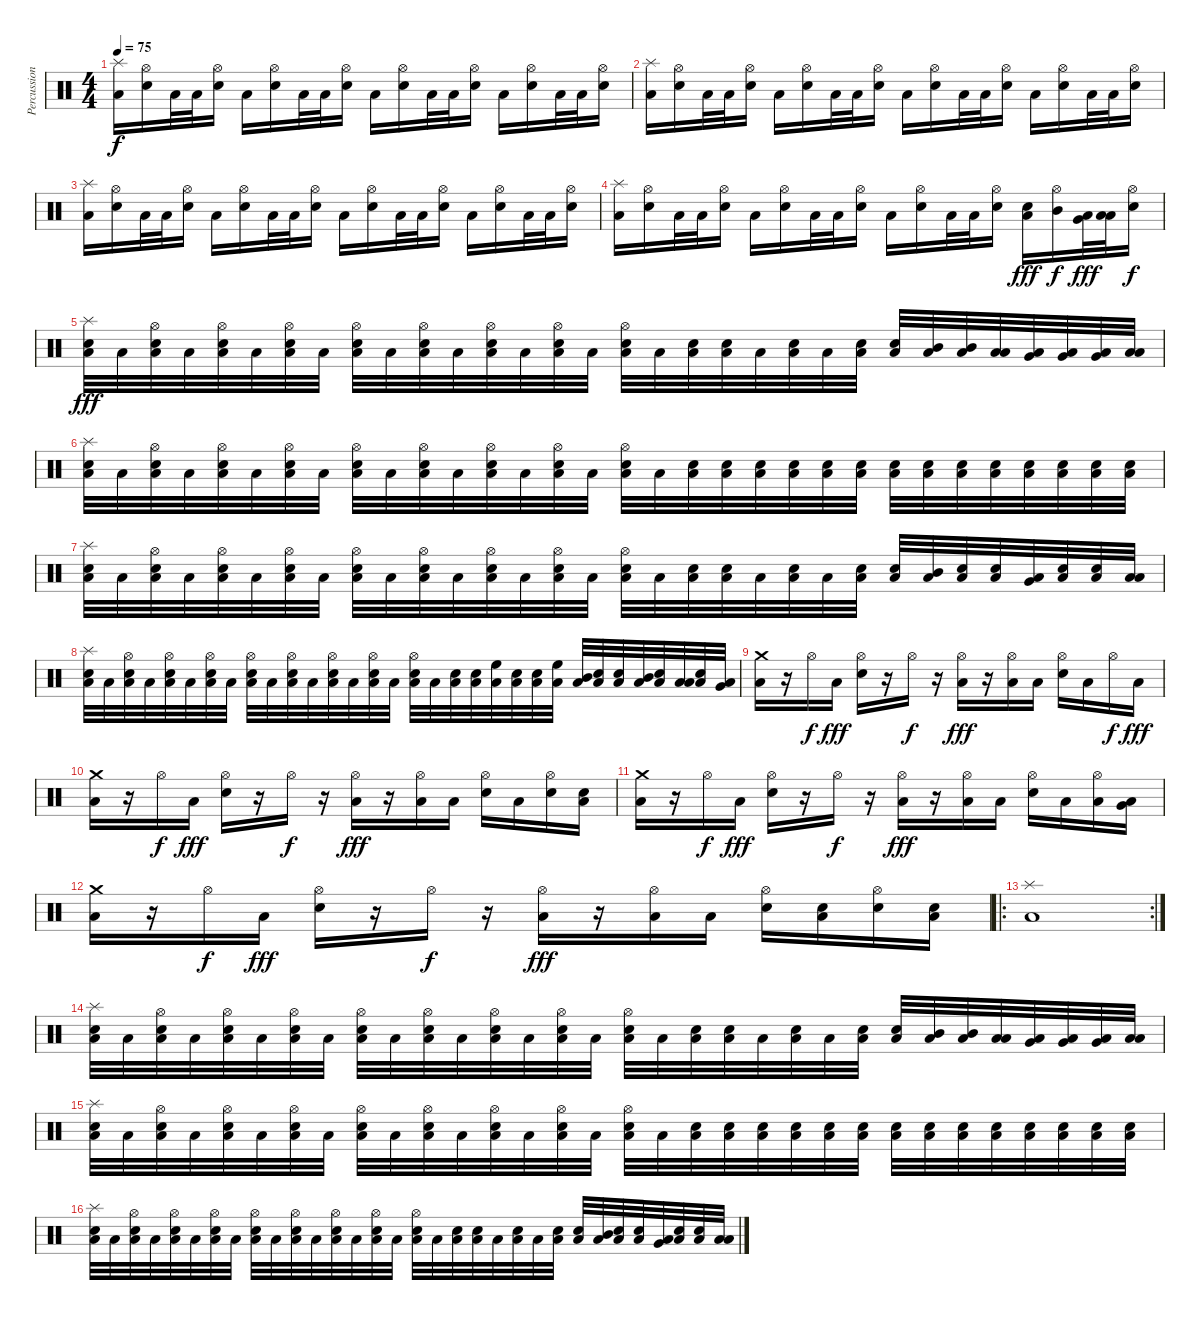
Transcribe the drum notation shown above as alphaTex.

\track ("Percussion" "Percussion") {instrument percussion}
\staff {score}
\articulation defaults
\ts (4 4)
\tempo 75
\clef neutral
\ks c
("Splash (hit)" "Low Floor Tom (hit)").16{dy f} ("Hi-Hat (open)" "Snare (hit) 2").16 "Low Floor Tom (hit)".32 "Low Floor Tom (hit)".32 ("Hi-Hat (open)" "Snare (hit) 2").16 "Low Floor Tom (hit)".16 ("Hi-Hat (open)" "Snare (hit) 2").16 "Low Floor Tom (hit)".32 "Low Floor Tom (hit)".32 ("Hi-Hat (open)" "Snare (hit) 2").16 "Low Floor Tom (hit)".16 ("Hi-Hat (open)" "Snare (hit) 2").16 "Low Floor Tom (hit)".32 "Low Floor Tom (hit)".32 ("Hi-Hat (open)" "Snare (hit) 2").16 "Low Floor Tom (hit)".16 ("Hi-Hat (open)" "Snare (hit) 2").16 "Low Floor Tom (hit)".32 "Low Floor Tom (hit)".32 ("Hi-Hat (open)" "Snare (hit) 2").16 |
("Splash (hit)" "Low Floor Tom (hit)").16 ("Hi-Hat (open)" "Snare (hit) 2").16 "Low Floor Tom (hit)".32 "Low Floor Tom (hit)".32 ("Hi-Hat (open)" "Snare (hit) 2").16 "Low Floor Tom (hit)".16 ("Hi-Hat (open)" "Snare (hit) 2").16 "Low Floor Tom (hit)".32 "Low Floor Tom (hit)".32 ("Hi-Hat (open)" "Snare (hit) 2").16 "Low Floor Tom (hit)".16 ("Hi-Hat (open)" "Snare (hit) 2").16 "Low Floor Tom (hit)".32 "Low Floor Tom (hit)".32 ("Hi-Hat (open)" "Snare (hit) 2").16 "Low Floor Tom (hit)".16 ("Hi-Hat (open)" "Snare (hit) 2").16 "Low Floor Tom (hit)".32 "Low Floor Tom (hit)".32 ("Hi-Hat (open)" "Snare (hit) 2").16 |
("Splash (hit)" "Low Floor Tom (hit)").16 ("Hi-Hat (open)" "Snare (hit) 2").16 "Low Floor Tom (hit)".32 "Low Floor Tom (hit)".32 ("Hi-Hat (open)" "Snare (hit) 2").16 "Low Floor Tom (hit)".16 ("Hi-Hat (open)" "Snare (hit) 2").16 "Low Floor Tom (hit)".32 "Low Floor Tom (hit)".32 ("Hi-Hat (open)" "Snare (hit) 2").16 "Low Floor Tom (hit)".16 ("Hi-Hat (open)" "Snare (hit) 2").16 "Low Floor Tom (hit)".32 "Low Floor Tom (hit)".32 ("Hi-Hat (open)" "Snare (hit) 2").16 "Low Floor Tom (hit)".16 ("Hi-Hat (open)" "Snare (hit) 2").16 "Low Floor Tom (hit)".32 "Low Floor Tom (hit)".32 ("Hi-Hat (open)" "Snare (hit) 2").16 |
("Splash (hit)" "Low Floor Tom (hit)").16 ("Hi-Hat (open)" "Snare (hit) 2").16 "Low Floor Tom (hit)".32 "Low Floor Tom (hit)".32 ("Hi-Hat (open)" "Snare (hit) 2").16 "Low Floor Tom (hit)".16 ("Hi-Hat (open)" "Snare (hit) 2").16 "Low Floor Tom (hit)".32 "Low Floor Tom (hit)".32 ("Hi-Hat (open)" "Snare (hit) 2").16 "Low Floor Tom (hit)".16 ("Hi-Hat (open)" "Snare (hit) 2").16 "Low Floor Tom (hit)".32 "Low Floor Tom (hit)".32 ("Hi-Hat (open)" "Snare (hit) 2").16 ("Snare (hit) 2" "Low Floor Tom (hit)").16{dy fff} ("Hi-Hat (open)" "Mid Tom (hit)").16{dy f} ("Very Low Tom (hit)" "Low Floor Tom (hit)").32{dy fff} ("Low Floor Tom (hit)" "Low Floor Tom (hit)").32 ("Hi-Hat (open)" "Snare (hit) 2").16{dy f} |
("Splash (hit)" "Snare (hit) 2" "Low Floor Tom (hit)").32{dy fff} "Low Floor Tom (hit)".32 ("Hi-Hat (open)" "Snare (hit) 2" "Low Floor Tom (hit)").32 "Low Floor Tom (hit)".32 ("Hi-Hat (open)" "Snare (hit) 2" "Low Floor Tom (hit)").32 "Low Floor Tom (hit)".32 ("Hi-Hat (open)" "Snare (hit) 2" "Low Floor Tom (hit)").32 "Low Floor Tom (hit)".32 ("Hi-Hat (open)" "Snare (hit) 2" "Low Floor Tom (hit)").32 "Low Floor Tom (hit)".32 ("Hi-Hat (open)" "Snare (hit) 2" "Low Floor Tom (hit)").32 "Low Floor Tom (hit)".32 ("Hi-Hat (open)" "Snare (hit) 2" "Low Floor Tom (hit)").32 "Low Floor Tom (hit)".32 ("Hi-Hat (open)" "Snare (hit) 2" "Low Floor Tom (hit)").32 "Low Floor Tom (hit)".32 ("Hi-Hat (open)" "Snare (hit) 2" "Low Floor Tom (hit)").32 "Low Floor Tom (hit)".32 ("Snare (hit) 2" "Low Floor Tom (hit)").32 ("Snare (hit) 2" "Low Floor Tom (hit)").32 "Low Floor Tom (hit)".32 ("Snare (hit) 2" "Low Floor Tom (hit)").32 "Low Floor Tom (hit)".32 ("Snare (hit) 2" "Low Floor Tom (hit)").32 ("Snare (hit) 2" "Low Floor Tom (hit)").32 ("Mid Tom (hit)" "Low Floor Tom (hit)").32 ("Mid Tom (hit)" "Low Floor Tom (hit)").32 ("Low Tom (hit)" "Low Floor Tom (hit)").32 ("Very Low Tom (hit)" "Low Floor Tom (hit)").32 ("Very Low Tom (hit)" "Low Floor Tom (hit)").32 ("Very Low Tom (hit)" "Low Floor Tom (hit)").32 ("Low Floor Tom (hit)" "Low Floor Tom (hit)").32 |
("Splash (hit)" "Snare (hit) 2" "Low Floor Tom (hit)").32 "Low Floor Tom (hit)".32 ("Hi-Hat (open)" "Snare (hit) 2" "Low Floor Tom (hit)").32 "Low Floor Tom (hit)".32 ("Hi-Hat (open)" "Snare (hit) 2" "Low Floor Tom (hit)").32 "Low Floor Tom (hit)".32 ("Hi-Hat (open)" "Snare (hit) 2" "Low Floor Tom (hit)").32 "Low Floor Tom (hit)".32 ("Hi-Hat (open)" "Snare (hit) 2" "Low Floor Tom (hit)").32 "Low Floor Tom (hit)".32 ("Hi-Hat (open)" "Snare (hit) 2" "Low Floor Tom (hit)").32 "Low Floor Tom (hit)".32 ("Hi-Hat (open)" "Snare (hit) 2" "Low Floor Tom (hit)").32 "Low Floor Tom (hit)".32 ("Hi-Hat (open)" "Snare (hit) 2" "Low Floor Tom (hit)").32 "Low Floor Tom (hit)".32 ("Hi-Hat (open)" "Snare (hit) 2" "Low Floor Tom (hit)").32 "Low Floor Tom (hit)".32 ("Snare (hit) 2" "Low Floor Tom (hit)").32 ("Snare (hit) 2" "Low Floor Tom (hit)").32 ("Snare (hit) 2" "Low Floor Tom (hit)").32 ("Snare (hit) 2" "Low Floor Tom (hit)").32 ("Snare (hit) 2" "Low Floor Tom (hit)").32 ("Snare (hit) 2" "Low Floor Tom (hit)").32 ("Snare (hit) 2" "Low Floor Tom (hit)").32 ("Snare (hit) 2" "Low Floor Tom (hit)").32 ("Snare (hit) 2" "Low Floor Tom (hit)").32 ("Snare (hit) 2" "Low Floor Tom (hit)").32 ("Snare (hit) 2" "Low Floor Tom (hit)").32 ("Snare (hit) 2" "Low Floor Tom (hit)").32 ("Snare (hit) 2" "Low Floor Tom (hit)").32 ("Snare (hit) 2" "Low Floor Tom (hit)").32 |
("Splash (hit)" "Snare (hit) 2" "Low Floor Tom (hit)").32 "Low Floor Tom (hit)".32 ("Hi-Hat (open)" "Snare (hit) 2" "Low Floor Tom (hit)").32 "Low Floor Tom (hit)".32 ("Hi-Hat (open)" "Snare (hit) 2" "Low Floor Tom (hit)").32 "Low Floor Tom (hit)".32 ("Hi-Hat (open)" "Snare (hit) 2" "Low Floor Tom (hit)").32 "Low Floor Tom (hit)".32 ("Hi-Hat (open)" "Snare (hit) 2" "Low Floor Tom (hit)").32 "Low Floor Tom (hit)".32 ("Hi-Hat (open)" "Snare (hit) 2" "Low Floor Tom (hit)").32 "Low Floor Tom (hit)".32 ("Hi-Hat (open)" "Snare (hit) 2" "Low Floor Tom (hit)").32 "Low Floor Tom (hit)".32 ("Hi-Hat (open)" "Snare (hit) 2" "Low Floor Tom (hit)").32 "Low Floor Tom (hit)".32 ("Hi-Hat (open)" "Snare (hit) 2" "Low Floor Tom (hit)").32 "Low Floor Tom (hit)".32 ("Snare (hit) 2" "Low Floor Tom (hit)").32 ("Snare (hit) 2" "Low Floor Tom (hit)").32 "Low Floor Tom (hit)".32 ("Snare (hit) 2" "Low Floor Tom (hit)").32 "Low Floor Tom (hit)".32 ("Snare (hit) 2" "Low Floor Tom (hit)").32 ("Snare (hit) 2" "Low Floor Tom (hit)").32 ("Mid Tom (hit)" "Low Floor Tom (hit)").32 ("Snare (hit) 2" "Low Floor Tom (hit)").32 ("Snare (hit) 2" "Low Floor Tom (hit)").32 ("Very Low Tom (hit)" "Low Floor Tom (hit)").32 ("Snare (hit) 2" "Low Floor Tom (hit)").32 ("Snare (hit) 2" "Low Floor Tom (hit)").32 ("Low Floor Tom (hit)" "Low Floor Tom (hit)").32 |
("Splash (hit)" "Snare (hit) 2" "Low Floor Tom (hit)").32 "Low Floor Tom (hit)".32 ("Hi-Hat (open)" "Snare (hit) 2" "Low Floor Tom (hit)").32 "Low Floor Tom (hit)".32 ("Hi-Hat (open)" "Snare (hit) 2" "Low Floor Tom (hit)").32 "Low Floor Tom (hit)".32 ("Hi-Hat (open)" "Snare (hit) 2" "Low Floor Tom (hit)").32 "Low Floor Tom (hit)".32 ("Hi-Hat (open)" "Snare (hit) 2" "Low Floor Tom (hit)").32 "Low Floor Tom (hit)".32 ("Hi-Hat (open)" "Snare (hit) 2" "Low Floor Tom (hit)").32 "Low Floor Tom (hit)".32 ("Hi-Hat (open)" "Snare (hit) 2" "Low Floor Tom (hit)").32 "Low Floor Tom (hit)".32 ("Hi-Hat (open)" "Snare (hit) 2" "Low Floor Tom (hit)").32 "Low Floor Tom (hit)".32 ("Hi-Hat (open)" "Snare (hit) 2" "Low Floor Tom (hit)").32 "Low Floor Tom (hit)".32 ("Snare (hit) 2" "Low Floor Tom (hit)").32 ("Snare (hit) 2" "Low Floor Tom (hit)").32 ("High Floor Tom (hit)" "Low Floor Tom (hit)").32 ("Snare (hit) 2" "Low Floor Tom (hit)").32 ("Snare (hit) 2" "Low Floor Tom (hit)").32 ("High Floor Tom (hit)" "Low Floor Tom (hit)").32 ("Mid Tom (hit)" "Low Floor Tom (hit)").32 ("Snare (hit) 2" "Low Floor Tom (hit)").32 ("Snare (hit) 2" "Low Floor Tom (hit)").32 ("Mid Tom (hit)" "Low Floor Tom (hit)").32 ("Snare (hit) 2" "Low Floor Tom (hit)").32 ("Low Tom (hit)" "Low Floor Tom (hit)").32 ("Snare (hit) 2" "Low Floor Tom (hit)").32 ("Very Low Tom (hit)" "Low Floor Tom (hit)").32 |
("Crash medium (hit)" "Low Floor Tom (hit)").16 r.16 "Hi-Hat (open)".16{dy f} "Low Floor Tom (hit)".16{dy fff} ("Hi-Hat (open)" "Snare (hit) 2").16 r.16 "Hi-Hat (open)".16{dy f} r.16 ("Hi-Hat (open)" "Low Floor Tom (hit)").16{dy fff} r.16 ("Hi-Hat (open)" "Low Floor Tom (hit)").16 "Low Floor Tom (hit)".16 ("Hi-Hat (open)" "Snare (hit) 2").16 "Low Floor Tom (hit)".16 "Hi-Hat (open)".16{dy f} "Low Floor Tom (hit)".16{dy fff} |
("Crash medium (hit)" "Low Floor Tom (hit)").16 r.16 "Hi-Hat (open)".16{dy f} "Low Floor Tom (hit)".16{dy fff} ("Hi-Hat (open)" "Snare (hit) 2").16 r.16 "Hi-Hat (open)".16{dy f} r.16 ("Hi-Hat (open)" "Low Floor Tom (hit)").16{dy fff} r.16 ("Hi-Hat (open)" "Low Floor Tom (hit)").16 "Low Floor Tom (hit)".16 ("Hi-Hat (open)" "Snare (hit) 2").16 "Low Floor Tom (hit)".16 ("Hi-Hat (open)" "Snare (hit) 2").16 ("Snare (hit) 2" "Low Floor Tom (hit)").16 |
("Crash medium (hit)" "Low Floor Tom (hit)").16 r.16 "Hi-Hat (open)".16{dy f} "Low Floor Tom (hit)".16{dy fff} ("Hi-Hat (open)" "Snare (hit) 2").16 r.16 "Hi-Hat (open)".16{dy f} r.16 ("Hi-Hat (open)" "Low Floor Tom (hit)").16{dy fff} r.16 ("Hi-Hat (open)" "Low Floor Tom (hit)").16 "Low Floor Tom (hit)".16 ("Hi-Hat (open)" "Snare (hit) 2").16 "Low Floor Tom (hit)".16 ("Hi-Hat (open)" "Low Tom (hit)").16 ("Very Low Tom (hit)" "Low Floor Tom (hit)").16 |
("Crash medium (hit)" "Low Floor Tom (hit)").16 r.16 "Hi-Hat (open)".16{dy f} "Low Floor Tom (hit)".16{dy fff} ("Hi-Hat (open)" "Snare (hit) 2").16 r.16 "Hi-Hat (open)".16{dy f} r.16 ("Hi-Hat (open)" "Low Floor Tom (hit)").16{dy fff} r.16 ("Hi-Hat (open)" "Low Floor Tom (hit)").16 "Low Floor Tom (hit)".16 ("Hi-Hat (open)" "Snare (hit) 2").16 ("Snare (hit) 2" "Low Floor Tom (hit)").16 ("Hi-Hat (open)" "Snare (hit) 2").16 ("Snare (hit) 2" "Low Floor Tom (hit)").16 |
\ro
\rc 2
("Splash (hit)" "Low Floor Tom (hit)").1 |
("Splash (hit)" "Snare (hit) 2" "Low Floor Tom (hit)").32 "Low Floor Tom (hit)".32 ("Hi-Hat (open)" "Snare (hit) 2" "Low Floor Tom (hit)").32 "Low Floor Tom (hit)".32 ("Hi-Hat (open)" "Snare (hit) 2" "Low Floor Tom (hit)").32 "Low Floor Tom (hit)".32 ("Hi-Hat (open)" "Snare (hit) 2" "Low Floor Tom (hit)").32 "Low Floor Tom (hit)".32 ("Hi-Hat (open)" "Snare (hit) 2" "Low Floor Tom (hit)").32 "Low Floor Tom (hit)".32 ("Hi-Hat (open)" "Snare (hit) 2" "Low Floor Tom (hit)").32 "Low Floor Tom (hit)".32 ("Hi-Hat (open)" "Snare (hit) 2" "Low Floor Tom (hit)").32 "Low Floor Tom (hit)".32 ("Hi-Hat (open)" "Snare (hit) 2" "Low Floor Tom (hit)").32 "Low Floor Tom (hit)".32 ("Hi-Hat (open)" "Snare (hit) 2" "Low Floor Tom (hit)").32 "Low Floor Tom (hit)".32 ("Snare (hit) 2" "Low Floor Tom (hit)").32 ("Snare (hit) 2" "Low Floor Tom (hit)").32 "Low Floor Tom (hit)".32 ("Snare (hit) 2" "Low Floor Tom (hit)").32 "Low Floor Tom (hit)".32 ("Snare (hit) 2" "Low Floor Tom (hit)").32 ("Snare (hit) 2" "Low Floor Tom (hit)").32 ("Mid Tom (hit)" "Low Floor Tom (hit)").32 ("Mid Tom (hit)" "Low Floor Tom (hit)").32 ("Low Tom (hit)" "Low Floor Tom (hit)").32 ("Very Low Tom (hit)" "Low Floor Tom (hit)").32 ("Very Low Tom (hit)" "Low Floor Tom (hit)").32 ("Very Low Tom (hit)" "Low Floor Tom (hit)").32 ("Low Floor Tom (hit)" "Low Floor Tom (hit)").32 |
("Splash (hit)" "Snare (hit) 2" "Low Floor Tom (hit)").32 "Low Floor Tom (hit)".32 ("Hi-Hat (open)" "Snare (hit) 2" "Low Floor Tom (hit)").32 "Low Floor Tom (hit)".32 ("Hi-Hat (open)" "Snare (hit) 2" "Low Floor Tom (hit)").32 "Low Floor Tom (hit)".32 ("Hi-Hat (open)" "Snare (hit) 2" "Low Floor Tom (hit)").32 "Low Floor Tom (hit)".32 ("Hi-Hat (open)" "Snare (hit) 2" "Low Floor Tom (hit)").32 "Low Floor Tom (hit)".32 ("Hi-Hat (open)" "Snare (hit) 2" "Low Floor Tom (hit)").32 "Low Floor Tom (hit)".32 ("Hi-Hat (open)" "Snare (hit) 2" "Low Floor Tom (hit)").32 "Low Floor Tom (hit)".32 ("Hi-Hat (open)" "Snare (hit) 2" "Low Floor Tom (hit)").32 "Low Floor Tom (hit)".32 ("Hi-Hat (open)" "Snare (hit) 2" "Low Floor Tom (hit)").32 "Low Floor Tom (hit)".32 ("Snare (hit) 2" "Low Floor Tom (hit)").32 ("Snare (hit) 2" "Low Floor Tom (hit)").32 ("Snare (hit) 2" "Low Floor Tom (hit)").32 ("Snare (hit) 2" "Low Floor Tom (hit)").32 ("Snare (hit) 2" "Low Floor Tom (hit)").32 ("Snare (hit) 2" "Low Floor Tom (hit)").32 ("Snare (hit) 2" "Low Floor Tom (hit)").32 ("Snare (hit) 2" "Low Floor Tom (hit)").32 ("Snare (hit) 2" "Low Floor Tom (hit)").32 ("Snare (hit) 2" "Low Floor Tom (hit)").32 ("Snare (hit) 2" "Low Floor Tom (hit)").32 ("Snare (hit) 2" "Low Floor Tom (hit)").32 ("Snare (hit) 2" "Low Floor Tom (hit)").32 ("Snare (hit) 2" "Low Floor Tom (hit)").32 |
("Splash (hit)" "Snare (hit) 2" "Low Floor Tom (hit)").32 "Low Floor Tom (hit)".32 ("Hi-Hat (open)" "Snare (hit) 2" "Low Floor Tom (hit)").32 "Low Floor Tom (hit)".32 ("Hi-Hat (open)" "Snare (hit) 2" "Low Floor Tom (hit)").32 "Low Floor Tom (hit)".32 ("Hi-Hat (open)" "Snare (hit) 2" "Low Floor Tom (hit)").32 "Low Floor Tom (hit)".32 ("Hi-Hat (open)" "Snare (hit) 2" "Low Floor Tom (hit)").32 "Low Floor Tom (hit)".32 ("Hi-Hat (open)" "Snare (hit) 2" "Low Floor Tom (hit)").32 "Low Floor Tom (hit)".32 ("Hi-Hat (open)" "Snare (hit) 2" "Low Floor Tom (hit)").32 "Low Floor Tom (hit)".32 ("Hi-Hat (open)" "Snare (hit) 2" "Low Floor Tom (hit)").32 "Low Floor Tom (hit)".32 ("Hi-Hat (open)" "Snare (hit) 2" "Low Floor Tom (hit)").32 "Low Floor Tom (hit)".32 ("Snare (hit) 2" "Low Floor Tom (hit)").32 ("Snare (hit) 2" "Low Floor Tom (hit)").32 "Low Floor Tom (hit)".32 ("Snare (hit) 2" "Low Floor Tom (hit)").32 "Low Floor Tom (hit)".32 ("Snare (hit) 2" "Low Floor Tom (hit)").32 ("Snare (hit) 2" "Low Floor Tom (hit)").32 ("Mid Tom (hit)" "Low Floor Tom (hit)").32 ("Snare (hit) 2" "Low Floor Tom (hit)").32 ("Snare (hit) 2" "Low Floor Tom (hit)").32 ("Very Low Tom (hit)" "Low Floor Tom (hit)").32 ("Snare (hit) 2" "Low Floor Tom (hit)").32 ("Snare (hit) 2" "Low Floor Tom (hit)").32 ("Low Floor Tom (hit)" "Low Floor Tom (hit)").32
